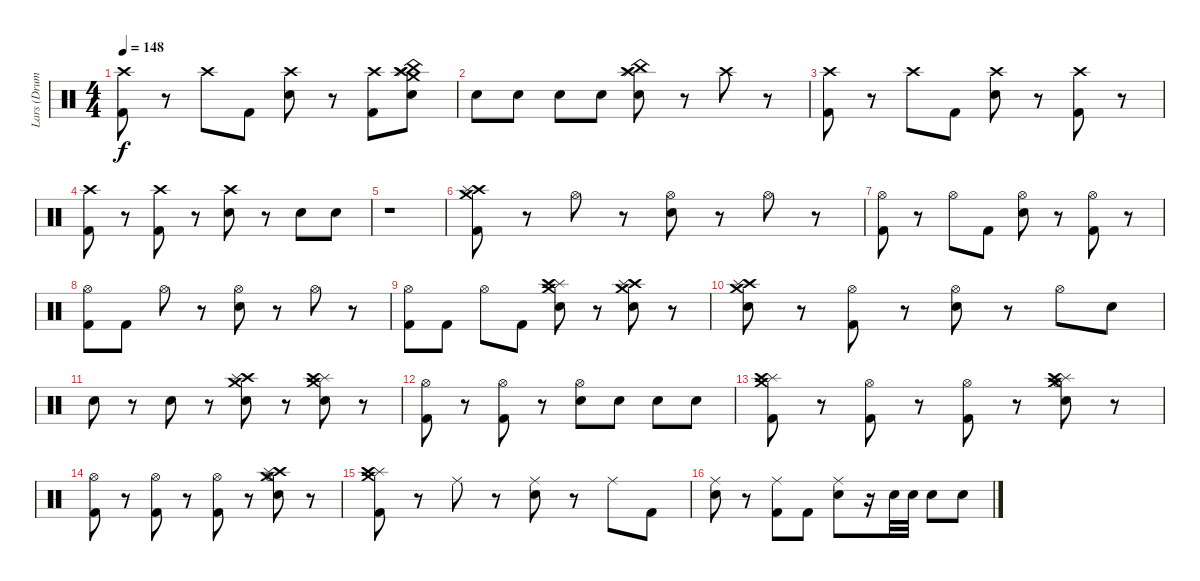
\track ("Lars (Drums)" "Lars (Drum") {instrument percussion}
\staff {score}
\articulation defaults
\ts (4 4)
\tempo 148
\clef neutral
\ks c
("Crash high (hit)" "Kick (hit) 2").8{dy f} r.8 "Crash high (hit)".8 "Kick (hit) 2".8 ("Crash high (hit)" "Snare (hit) 2").8 r.8 ("Kick (hit) 2" "Crash high (hit)").8 ("Crash medium (hit)" "Splash (hit)" "China (hit)" "Crash high (hit)" "Snare (hit) 2").8 |
"Snare (hit) 2".8 "Snare (hit) 2".8 "Snare (hit) 2".8 "Snare (hit) 2".8 ("Crash high (hit)" "China (hit)" "Splash (hit)" "Snare (hit) 2").8 r.8 "Crash high (hit)".8 r.8 |
("Crash high (hit)" "Kick (hit) 2").8 r.8 "Crash high (hit)".8 "Kick (hit) 2".8 ("Crash high (hit)" "Snare (hit) 2").8 r.8 ("Crash high (hit)" "Kick (hit) 2").8 r.8 |
("Crash high (hit)" "Kick (hit) 2").8 r.8 ("Crash high (hit)" "Kick (hit) 2").8 r.8 ("Crash high (hit)" "Snare (hit) 2").8 r.8 "Snare (hit) 2".8 "Snare (hit) 2".8 |
r.1 |
("Crash medium (hit)" "Crash high (hit)" "Splash (hit)" "Kick (hit) 2").8 r.8 "Hi-Hat (open)".8 r.8 ("Hi-Hat (open)" "Snare (hit) 2").8 r.8 "Hi-Hat (open)".8 r.8 |
("Hi-Hat (open)" "Kick (hit) 2").8 r.8 "Hi-Hat (open)".8 "Kick (hit) 2".8 ("Hi-Hat (open)" "Snare (hit) 2").8 r.8 ("Hi-Hat (open)" "Kick (hit) 2").8 r.8 |
("Hi-Hat (open)" "Kick (hit) 2").8 "Kick (hit) 2".8 "Hi-Hat (open)".8 r.8 ("Hi-Hat (open)" "Snare (hit) 2").8 r.8 "Hi-Hat (open)".8 r.8 |
("Hi-Hat (open)" "Kick (hit) 2").8 "Kick (hit) 2".8 "Hi-Hat (open)".8 "Kick (hit) 2".8 ("Crash medium (hit)" "Splash (hit)" "Crash high (hit)" "Snare (hit) 2").8 r.8 ("Crash medium (hit)" "Crash high (hit)" "Splash (hit)" "Snare (hit) 2").8 r.8 |
("Snare (hit) 2" "Crash high (hit)" "Splash (hit)" "Crash medium (hit)").8 r.8 ("Hi-Hat (open)" "Kick (hit) 2").8 r.8 ("Hi-Hat (open)" "Snare (hit) 2").8 r.8 "Hi-Hat (open)".8 "Snare (hit) 2".8 |
"Snare (hit) 2".8 r.8 "Snare (hit) 2".8 r.8 ("Crash high (hit)" "Splash (hit)" "Crash medium (hit)" "Snare (hit) 2").8 r.8 ("Splash (hit)" "Crash medium (hit)" "Snare (hit) 2" "Crash high (hit)").8 r.8 |
("Kick (hit) 2" "Hi-Hat (open)").8 r.8 ("Kick (hit) 2" "Hi-Hat (open)").8 r.8 ("Snare (hit) 2" "Hi-Hat (open)").8 "Snare (hit) 2".8 "Snare (hit) 2".8 "Snare (hit) 2".8 |
("Crash medium (hit)" "Splash (hit)" "Crash high (hit)" "Kick (hit) 2").8 r.8 ("Kick (hit) 2" "Hi-Hat (open)").8 r.8 ("Kick (hit) 2" "Hi-Hat (open)").8 r.8 ("Crash medium (hit)" "Splash (hit)" "Crash high (hit)" "Snare (hit) 2" "Hi-Hat (open)").8 r.8 |
("Hi-Hat (open)" "Kick (hit) 2").8 r.8 ("Hi-Hat (open)" "Kick (hit) 2").8 r.8 ("Hi-Hat (open)" "Kick (hit) 2").8 r.8 ("Crash high (hit)" "Splash (hit)" "Crash medium (hit)" "Hi-Hat (open)" "Snare (hit) 2").8 r.8 |
("Crash medium (hit)" "Splash (hit)" "Crash high (hit)" "Kick (hit) 2").8 r.8 "Ride (middle)".8 r.8 ("Ride (middle)" "Snare (hit) 2").8 r.8 "Ride (middle)".8 "Kick (hit) 2".8 |
("Ride (middle)" "Snare (hit) 2").8 r.8 ("Ride (middle)" "Kick (hit) 2").8 "Kick (hit) 2".8 ("Ride (middle)" "Snare (hit) 2").8 r.16 "Snare (hit) 2".32 "Snare (hit) 2".32 "Snare (hit) 2".8 "Snare (hit) 2".8
